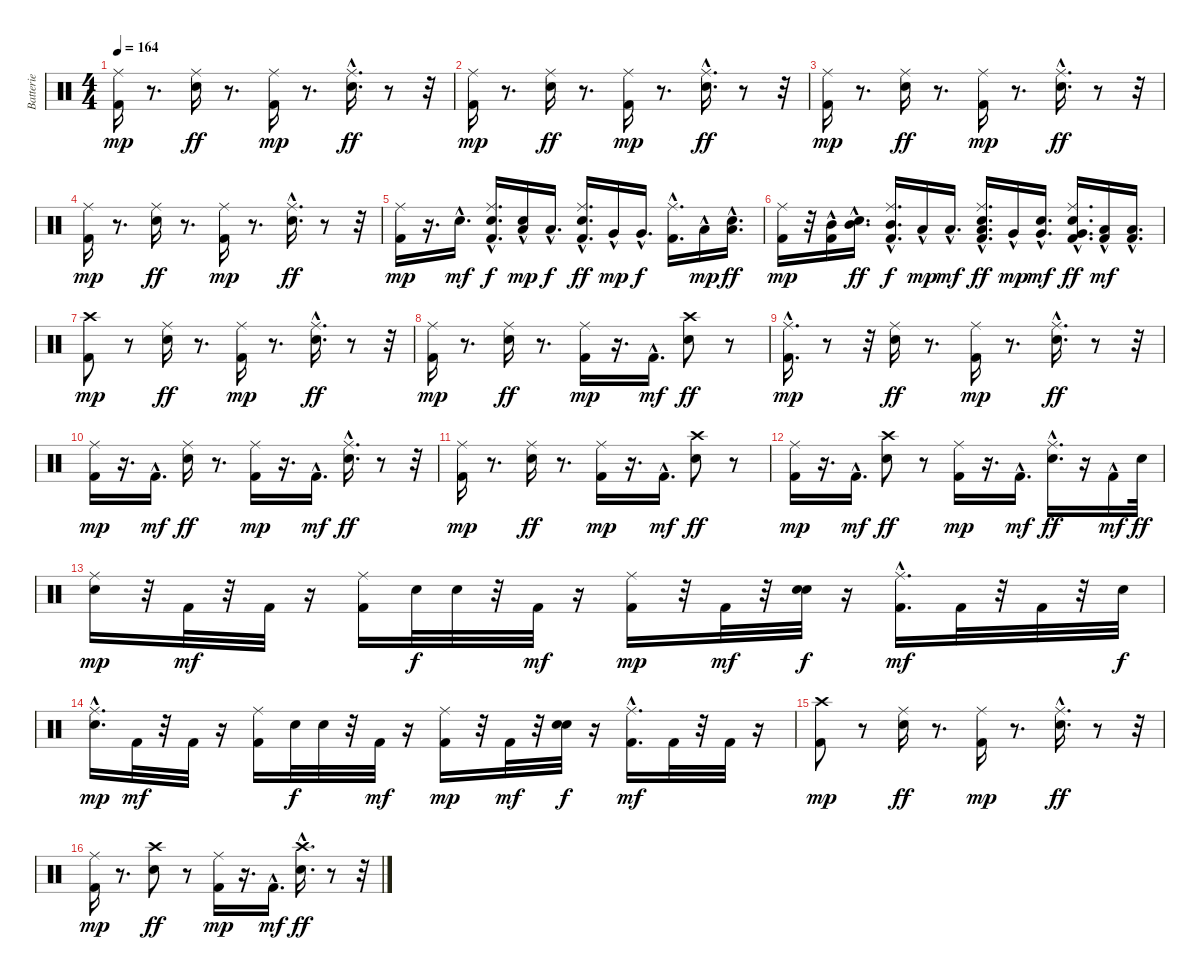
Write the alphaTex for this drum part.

\track ("Batterie" "Batterie") {instrument percussion}
\staff {score}
\articulation defaults
\ts (4 4)
\tempo 164
\clef neutral
\ks c
("Kick (hit) 2" "Ride (middle)").16{dy mp} r.8{d} ("Ride (middle)" "Electric Snare (hit)").16{dy ff} r.8{d} ("Kick (hit) 2" "Ride (middle)").16{dy mp} r.8{d} ("Ride (middle)"{hac} "Electric Snare (hit)").16{d dy ff} r.8 r.32 |
("Kick (hit) 2" "Ride (middle)").16{dy mp} r.8{d} ("Ride (middle)" "Electric Snare (hit)").16{dy ff} r.8{d} ("Kick (hit) 2" "Ride (middle)").16{dy mp} r.8{d} ("Ride (middle)"{hac} "Electric Snare (hit)").16{d dy ff} r.8 r.32 |
("Kick (hit) 2" "Ride (middle)").16{dy mp} r.8{d} ("Ride (middle)" "Electric Snare (hit)").16{dy ff} r.8{d} ("Kick (hit) 2" "Ride (middle)").16{dy mp} r.8{d} ("Ride (middle)"{hac} "Electric Snare (hit)").16{d dy ff} r.8 r.32 |
("Kick (hit) 2" "Ride (middle)").16{dy mp} r.8{d} ("Ride (middle)" "Electric Snare (hit)").16{dy ff} r.8{d} ("Kick (hit) 2" "Ride (middle)").16{dy mp} r.8{d} ("Ride (middle)"{hac} "Electric Snare (hit)").16{d dy ff} r.8 r.32 |
("Kick (hit) 2" "Ride (middle)").16{dy mp} r.16{d} "Electric Snare (hit)"{hac}.16{d dy mf} ("Kick (hit) 2" "Ride (middle)" "Electric Snare (hit)"{hac}).16{d dy f} ("Low Tom (hit)"{hac} "Electric Snare (hit)"{hac}).16{dy mp} "Low Tom (hit)"{hac}.16{d dy f} ("Kick (hit) 2" "Ride (middle)" "Electric Snare (hit)"{hac}).16{d dy ff} "Very Low Tom (hit)"{hac}.16{dy mp} "Very Low Tom (hit)"{hac}.16{d dy f} ("Kick (hit) 2" "Ride (middle)"{hac}).16{d} "Low Floor Tom (hit)"{hac}.16{dy mp} ("Low Floor Tom (hit)"{hac} "Electric Snare (hit)"{hac}).16{d dy ff} |
("Kick (hit) 2" "Ride (middle)").16{dy mp} r.32 ("Kick (hit) 2"{hac} "Mid Tom (hit)"{hac}).16 ("Mid Tom (hit)"{hac} "Electric Snare (hit)"{hac}).16{d dy ff} ("Kick (hit) 2" "Ride (middle)" "Mid Tom (hit)"{hac}).16{d dy f} "Low Tom (hit)"{hac}.16{dy mp} "Low Tom (hit)"{hac}.16{d dy mf} ("Kick (hit) 2" "Ride (middle)" "Low Tom (hit)"{hac} "Electric Snare (hit)"{hac}).16{d dy ff} "Very Low Tom (hit)"{hac}.16{dy mp} ("Very Low Tom (hit)"{hac} "Electric Snare (hit)"{hac}).16{d dy mf} ("Kick (hit) 2" "Ride (middle)"{hac} "Very Low Tom (hit)"{hac} "Electric Snare (hit)"{hac}).16{d dy ff} ("Kick (hit) 2"{hac} "Low Floor Tom (hit)"{hac}).16{dy mf} ("Kick (hit) 2" "Low Floor Tom (hit)"{hac}).16{d} |
("Kick (hit) 2" "Crash high (hit)").8{dy mp} r.8 ("Ride (middle)" "Electric Snare (hit)").16{dy ff} r.8{d} ("Kick (hit) 2" "Ride (middle)").16{dy mp} r.8{d} ("Ride (middle)"{hac} "Electric Snare (hit)").16{d dy ff} r.8 r.32 |
("Kick (hit) 2" "Ride (middle)").16{dy mp} r.8{d} ("Ride (middle)" "Electric Snare (hit)").16{dy ff} r.8{d} ("Kick (hit) 2" "Ride (middle)").16{dy mp} r.16{d} "Kick (hit) 2"{hac}.16{d dy mf} ("Crash high (hit)" "Electric Snare (hit)").8{dy ff} r.8 |
("Kick (hit) 2" "Ride (middle)"{hac}).16{d dy mp} r.8 r.32 ("Ride (middle)" "Electric Snare (hit)").16{dy ff} r.8{d} ("Kick (hit) 2" "Ride (middle)").16{dy mp} r.8{d} ("Ride (middle)"{hac} "Electric Snare (hit)").16{d dy ff} r.8 r.32 |
("Kick (hit) 2" "Ride (middle)").16{dy mp} r.16{d} "Kick (hit) 2"{hac}.16{d dy mf} ("Ride (middle)" "Electric Snare (hit)").16{dy ff} r.8{d} ("Kick (hit) 2" "Ride (middle)").16{dy mp} r.16{d} "Kick (hit) 2"{hac}.16{d dy mf} ("Ride (middle)"{hac} "Electric Snare (hit)").16{d dy ff} r.8 r.32 |
("Kick (hit) 2" "Ride (middle)").16{dy mp} r.8{d} ("Ride (middle)" "Electric Snare (hit)").16{dy ff} r.8{d} ("Kick (hit) 2" "Ride (middle)").16{dy mp} r.16{d} "Kick (hit) 2"{hac}.16{d dy mf} ("Crash high (hit)" "Electric Snare (hit)").8{dy ff} r.8 |
("Kick (hit) 2" "Ride (middle)").16{dy mp} r.16{d} "Kick (hit) 2"{hac}.16{d dy mf} ("Crash high (hit)" "Electric Snare (hit)").8{dy ff} r.8 ("Kick (hit) 2" "Ride (middle)").16{dy mp} r.16{d} "Kick (hit) 2"{hac}.16{d dy mf} ("Ride (middle)"{hac} "Electric Snare (hit)").16{d dy ff} r.16 "Kick (hit) 2"{hac}.16{dy mf} "Electric Snare (hit)".32{dy ff} |
("Ride (middle)" "Electric Snare (hit)").16{dy mp} r.32 "Kick (hit) 2".32{dy mf} r.32 "Kick (hit) 2".32 r.16 ("Kick (hit) 2" "Ride (middle)").16 "Electric Snare (hit)".32{dy f} "Electric Snare (hit)".32 r.32 "Kick (hit) 2".32{dy mf} r.16 ("Kick (hit) 2" "Ride (middle)").16{dy mp} r.32 "Kick (hit) 2".32{dy mf} r.32 ("Electric Snare (hit)" "Electric Snare (hit)").32{dy f} r.16 ("Kick (hit) 2" "Ride (middle)"{hac}).16{d dy mf} "Kick (hit) 2".32 r.32 "Kick (hit) 2".32 r.32 "Electric Snare (hit)".32{dy f} |
("Ride (middle)"{hac} "Electric Snare (hit)").16{d dy mp} "Kick (hit) 2".32{dy mf} r.32 "Kick (hit) 2".32 r.16 ("Kick (hit) 2" "Ride (middle)").16 "Electric Snare (hit)".32{dy f} "Electric Snare (hit)".32 r.32 "Kick (hit) 2".32{dy mf} r.16 ("Kick (hit) 2" "Ride (middle)").16{dy mp} r.32 "Kick (hit) 2".32{dy mf} r.32 ("Electric Snare (hit)" "Electric Snare (hit)").32{dy f} r.16 ("Kick (hit) 2" "Ride (middle)"{hac}).16{d dy mf} "Kick (hit) 2".32 r.32 "Kick (hit) 2".32 r.16 |
("Kick (hit) 2" "Crash high (hit)").8{dy mp} r.8 ("Ride (middle)" "Electric Snare (hit)").16{dy ff} r.8{d} ("Kick (hit) 2" "Ride (middle)").16{dy mp} r.8{d} ("Ride (middle)"{hac} "Electric Snare (hit)").16{d dy ff} r.8 r.32 |
("Kick (hit) 2" "Ride (middle)").16{dy mp} r.8{d} ("Crash high (hit)" "Electric Snare (hit)").8{dy ff} r.8 ("Kick (hit) 2" "Ride (middle)").16{dy mp} r.16{d} "Kick (hit) 2"{hac}.16{d dy mf} ("Crash high (hit)"{hac} "Electric Snare (hit)").16{d dy ff} r.8 r.32
